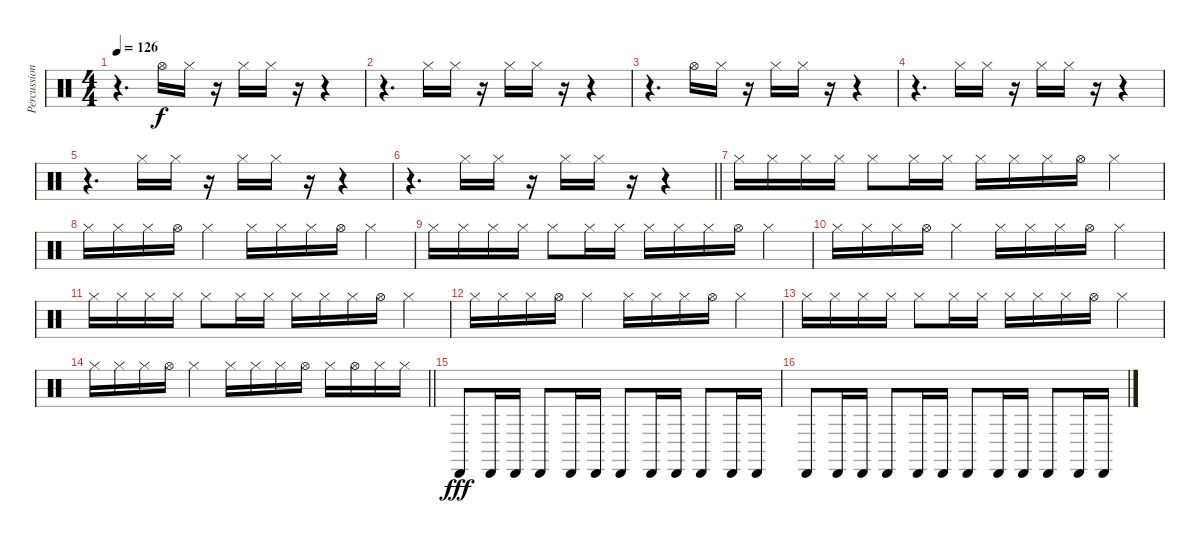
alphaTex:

\track ("Percussions" "Percussion") {instrument percussion}
\staff {score}
\articulation defaults
\ts (4 4)
\tempo 126
\clef neutral
\ks c
r.4{d dy f} "Hi-Hat (open)".16 "Hi-Hat (closed)".16 r.16 "Hi-Hat (closed)".16 "Hi-Hat (closed)".16 r.16 r.4 |
r.4{d} "Hi-Hat (closed)".16 "Hi-Hat (closed)".16 r.16 "Hi-Hat (closed)".16 "Hi-Hat (closed)".16 r.16 r.4 |
r.4{d} "Hi-Hat (open)".16 "Hi-Hat (closed)".16 r.16 "Hi-Hat (closed)".16 "Hi-Hat (closed)".16 r.16 r.4 |
r.4{d} "Hi-Hat (closed)".16 "Hi-Hat (closed)".16 r.16 "Hi-Hat (closed)".16 "Hi-Hat (closed)".16 r.16 r.4 |
r.4{d} "Hi-Hat (closed)".16 "Hi-Hat (closed)".16 r.16 "Hi-Hat (closed)".16 "Hi-Hat (closed)".16 r.16 r.4 |
\barLineRight lightlight
r.4{d} "Hi-Hat (closed)".16 "Hi-Hat (closed)".16 r.16 "Hi-Hat (closed)".16 "Hi-Hat (closed)".16 r.16 r.4 |
"Hi-Hat (closed)".16 "Hi-Hat (closed)".16 "Hi-Hat (closed)".16 "Hi-Hat (closed)".16 "Hi-Hat (closed)".8 "Hi-Hat (closed)".16 "Hi-Hat (closed)".16 "Hi-Hat (closed)".16 "Hi-Hat (closed)".16 "Hi-Hat (closed)".16 "Hi-Hat (open)".16 "Hi-Hat (closed)".4 |
"Hi-Hat (closed)".16 "Hi-Hat (closed)".16 "Hi-Hat (closed)".16 "Hi-Hat (open)".16 "Hi-Hat (closed)".4 "Hi-Hat (closed)".16 "Hi-Hat (closed)".16 "Hi-Hat (closed)".16 "Hi-Hat (open)".16 "Hi-Hat (closed)".4 |
"Hi-Hat (closed)".16 "Hi-Hat (closed)".16 "Hi-Hat (closed)".16 "Hi-Hat (closed)".16 "Hi-Hat (closed)".8 "Hi-Hat (closed)".16 "Hi-Hat (closed)".16 "Hi-Hat (closed)".16 "Hi-Hat (closed)".16 "Hi-Hat (closed)".16 "Hi-Hat (open)".16 "Hi-Hat (closed)".4 |
"Hi-Hat (closed)".16 "Hi-Hat (closed)".16 "Hi-Hat (closed)".16 "Hi-Hat (open)".16 "Hi-Hat (closed)".4 "Hi-Hat (closed)".16 "Hi-Hat (closed)".16 "Hi-Hat (closed)".16 "Hi-Hat (open)".16 "Hi-Hat (closed)".4 |
"Hi-Hat (closed)".16 "Hi-Hat (closed)".16 "Hi-Hat (closed)".16 "Hi-Hat (closed)".16 "Hi-Hat (closed)".8 "Hi-Hat (closed)".16 "Hi-Hat (closed)".16 "Hi-Hat (closed)".16 "Hi-Hat (closed)".16 "Hi-Hat (closed)".16 "Hi-Hat (open)".16 "Hi-Hat (closed)".4 |
"Hi-Hat (closed)".16 "Hi-Hat (closed)".16 "Hi-Hat (closed)".16 "Hi-Hat (open)".16 "Hi-Hat (closed)".4 "Hi-Hat (closed)".16 "Hi-Hat (closed)".16 "Hi-Hat (closed)".16 "Hi-Hat (open)".16 "Hi-Hat (closed)".4 |
"Hi-Hat (closed)".16 "Hi-Hat (closed)".16 "Hi-Hat (closed)".16 "Hi-Hat (closed)".16 "Hi-Hat (closed)".8 "Hi-Hat (closed)".16 "Hi-Hat (closed)".16 "Hi-Hat (closed)".16 "Hi-Hat (closed)".16 "Hi-Hat (closed)".16 "Hi-Hat (open)".16 "Hi-Hat (closed)".4 |
\barLineRight lightlight "Hi-Hat (closed)".16 "Hi-Hat (closed)".16 "Hi-Hat (closed)".16 "Hi-Hat (open)".16 "Hi-Hat (closed)".4 "Hi-Hat (closed)".16 "Hi-Hat (closed)".16 "Hi-Hat (closed)".16 "Hi-Hat (open)".16 "Hi-Hat (closed)".16 "Hi-Hat (open)".16 "Hi-Hat (closed)".16 "Hi-Hat (closed)".16
|
"Cabasa (hit)".8{dy fff} "Cabasa (hit)".16 "Cabasa (hit)".16 "Cabasa (hit)".8 "Cabasa (hit)".16 "Cabasa (hit)".16 "Cabasa (hit)".8 "Cabasa (hit)".16 "Cabasa (hit)".16 "Cabasa (hit)".8 "Cabasa (hit)".16 "Cabasa (hit)".16 |
"Cabasa (hit)".8 "Cabasa (hit)".16 "Cabasa (hit)".16 "Cabasa (hit)".8 "Cabasa (hit)".16 "Cabasa (hit)".16 "Cabasa (hit)".8 "Cabasa (hit)".16 "Cabasa (hit)".16 "Cabasa (hit)".8 "Cabasa (hit)".16 "Cabasa (hit)".16
